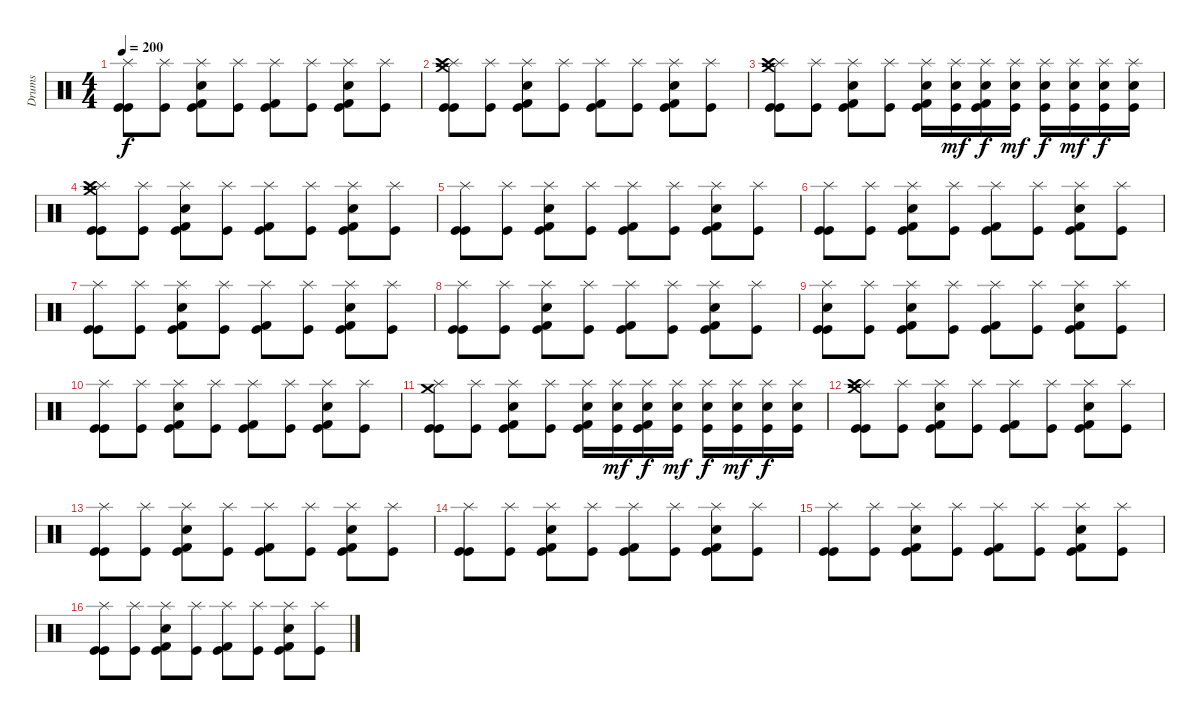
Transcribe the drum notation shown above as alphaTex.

\track ("Drums" "Drums") {instrument percussion}
\staff {score}
\articulation defaults
\ts (4 4)
\tempo 200
\clef neutral
\ks c
("Splash (hit)" "Kick (hit)" "Kick (hit)").8{dy f} ("Splash (hit)" "Kick (hit)").8 ("Splash (hit)" "Snare (hit) 2" "Kick (hit) 2" "Kick (hit)").8 ("Splash (hit)" "Kick (hit)").8 ("Splash (hit)" "Kick (hit) 2" "Kick (hit)").8 ("Splash (hit)" "Kick (hit)").8 ("Splash (hit)" "Snare (hit) 2" "Kick (hit) 2" "Kick (hit)").8 ("Splash (hit)" "Kick (hit)").8 |
("Splash (hit)" "Crash high (hit)" "Crash medium (hit)" "Kick (hit)" "Kick (hit)").8 ("Splash (hit)" "Kick (hit)").8 ("Splash (hit)" "Snare (hit) 2" "Kick (hit) 2" "Kick (hit)").8 ("Splash (hit)" "Kick (hit)").8 ("Splash (hit)" "Kick (hit) 2" "Kick (hit)").8 ("Splash (hit)" "Kick (hit)").8 ("Splash (hit)" "Snare (hit) 2" "Kick (hit) 2" "Kick (hit)").8 ("Splash (hit)" "Kick (hit)").8 |
("Splash (hit)" "Crash high (hit)" "Crash medium (hit)" "Kick (hit)" "Kick (hit)").8 ("Splash (hit)" "Kick (hit)").8 ("Splash (hit)" "Snare (hit) 2" "Kick (hit) 2" "Kick (hit)").8 ("Splash (hit)" "Kick (hit)").8 ("Splash (hit)" "Snare (hit) 2" "Kick (hit) 2" "Kick (hit)").16 ("Splash (hit)" "Snare (hit) 2" "Kick (hit)").16{dy mf} ("Splash (hit)" "Snare (hit) 2" "Kick (hit) 2" "Kick (hit)").16{dy f} ("Splash (hit)" "Snare (hit) 2" "Kick (hit)").16{dy mf} ("Splash (hit)" "Snare (hit) 2" "Kick (hit)").16{dy f} ("Splash (hit)" "Snare (hit) 2" "Kick (hit)").16{dy mf} ("Splash (hit)" "Snare (hit) 2" "Kick (hit)").16{dy f} ("Splash (hit)" "Snare (hit) 2" "Kick (hit)").16 |
("Splash (hit)" "Crash high (hit)" "Crash medium (hit)" "Kick (hit)" "Kick (hit)").8 ("Splash (hit)" "Kick (hit)").8 ("Splash (hit)" "Snare (hit) 2" "Kick (hit) 2" "Kick (hit)").8 ("Splash (hit)" "Kick (hit)").8 ("Splash (hit)" "Kick (hit) 2" "Kick (hit)").8 ("Splash (hit)" "Kick (hit)").8 ("Splash (hit)" "Snare (hit) 2" "Kick (hit) 2" "Kick (hit)").8 ("Splash (hit)" "Kick (hit)").8 |
("Splash (hit)" "Kick (hit)" "Kick (hit)").8 ("Splash (hit)" "Kick (hit)").8 ("Splash (hit)" "Snare (hit) 2" "Kick (hit) 2" "Kick (hit)").8 ("Splash (hit)" "Kick (hit)").8 ("Splash (hit)" "Kick (hit) 2" "Kick (hit)").8 ("Splash (hit)" "Kick (hit)").8 ("Splash (hit)" "Snare (hit) 2" "Kick (hit) 2" "Kick (hit)").8 ("Splash (hit)" "Kick (hit)").8 |
("Splash (hit)" "Kick (hit)" "Kick (hit)").8 ("Splash (hit)" "Kick (hit)").8 ("Splash (hit)" "Snare (hit) 2" "Kick (hit) 2" "Kick (hit)").8 ("Splash (hit)" "Kick (hit)").8 ("Splash (hit)" "Kick (hit) 2" "Kick (hit)").8 ("Splash (hit)" "Kick (hit)").8 ("Splash (hit)" "Snare (hit) 2" "Kick (hit) 2" "Kick (hit)").8 ("Splash (hit)" "Kick (hit)").8 |
("Splash (hit)" "Kick (hit)" "Kick (hit)").8 ("Splash (hit)" "Kick (hit)").8 ("Splash (hit)" "Snare (hit) 2" "Kick (hit) 2" "Kick (hit)").8 ("Splash (hit)" "Kick (hit)").8 ("Splash (hit)" "Kick (hit) 2" "Kick (hit)").8 ("Splash (hit)" "Kick (hit)").8 ("Splash (hit)" "Snare (hit) 2" "Kick (hit) 2" "Kick (hit)").8 ("Splash (hit)" "Kick (hit)").8 |
("Splash (hit)" "Kick (hit)" "Kick (hit)").8 ("Splash (hit)" "Kick (hit)").8 ("Splash (hit)" "Snare (hit) 2" "Kick (hit) 2" "Kick (hit)").8 ("Splash (hit)" "Kick (hit)").8 ("Splash (hit)" "Kick (hit) 2" "Kick (hit)").8 ("Splash (hit)" "Kick (hit)").8 ("Splash (hit)" "Snare (hit) 2" "Kick (hit) 2" "Kick (hit)").8 ("Splash (hit)" "Kick (hit)").8 |
("Splash (hit)" "Snare (hit) 2" "Kick (hit)" "Kick (hit)").8 ("Splash (hit)" "Kick (hit)").8 ("Splash (hit)" "Snare (hit) 2" "Kick (hit) 2" "Kick (hit)").8 ("Splash (hit)" "Kick (hit)").8 ("Splash (hit)" "Kick (hit) 2" "Kick (hit)").8 ("Splash (hit)" "Kick (hit)").8 ("Splash (hit)" "Snare (hit) 2" "Kick (hit) 2" "Kick (hit)").8 ("Splash (hit)" "Kick (hit)").8 |
("Splash (hit)" "Kick (hit)" "Kick (hit)").8 ("Splash (hit)" "Kick (hit)").8 ("Splash (hit)" "Snare (hit) 2" "Kick (hit) 2" "Kick (hit)").8 ("Splash (hit)" "Kick (hit)").8 ("Splash (hit)" "Kick (hit) 2" "Kick (hit)").8 ("Splash (hit)" "Kick (hit)").8 ("Splash (hit)" "Snare (hit) 2" "Kick (hit) 2" "Kick (hit)").8 ("Splash (hit)" "Kick (hit)").8 |
("Splash (hit)" "Crash medium (hit)" "Kick (hit)" "Kick (hit)").8 ("Splash (hit)" "Kick (hit)").8 ("Splash (hit)" "Snare (hit) 2" "Kick (hit) 2" "Kick (hit)").8 ("Splash (hit)" "Kick (hit)").8 ("Splash (hit)" "Snare (hit) 2" "Kick (hit) 2" "Kick (hit)").16 ("Splash (hit)" "Snare (hit) 2" "Kick (hit)").16{dy mf} ("Splash (hit)" "Snare (hit) 2" "Kick (hit) 2" "Kick (hit)").16{dy f} ("Splash (hit)" "Snare (hit) 2" "Kick (hit)").16{dy mf} ("Splash (hit)" "Snare (hit) 2" "Kick (hit)").16{dy f} ("Splash (hit)" "Snare (hit) 2" "Kick (hit)").16{dy mf} ("Splash (hit)" "Snare (hit) 2" "Kick (hit)").16{dy f} ("Splash (hit)" "Snare (hit) 2" "Kick (hit)").16 |
("Splash (hit)" "Crash high (hit)" "Crash medium (hit)" "Kick (hit)" "Kick (hit)").8 ("Splash (hit)" "Kick (hit)").8 ("Splash (hit)" "Snare (hit) 2" "Kick (hit) 2" "Kick (hit)").8 ("Splash (hit)" "Kick (hit)").8 ("Splash (hit)" "Kick (hit) 2" "Kick (hit)").8 ("Splash (hit)" "Kick (hit)").8 ("Splash (hit)" "Snare (hit) 2" "Kick (hit) 2" "Kick (hit)").8 ("Splash (hit)" "Kick (hit)").8 |
("Splash (hit)" "Kick (hit)" "Kick (hit)").8 ("Splash (hit)" "Kick (hit)").8 ("Splash (hit)" "Snare (hit) 2" "Kick (hit) 2" "Kick (hit)").8 ("Splash (hit)" "Kick (hit)").8 ("Splash (hit)" "Kick (hit) 2" "Kick (hit)").8 ("Splash (hit)" "Kick (hit)").8 ("Splash (hit)" "Snare (hit) 2" "Kick (hit) 2" "Kick (hit)").8 ("Splash (hit)" "Kick (hit)").8 |
("Splash (hit)" "Kick (hit)" "Kick (hit)").8 ("Splash (hit)" "Kick (hit)").8 ("Splash (hit)" "Snare (hit) 2" "Kick (hit) 2" "Kick (hit)").8 ("Splash (hit)" "Kick (hit)").8 ("Splash (hit)" "Kick (hit) 2" "Kick (hit)").8 ("Splash (hit)" "Kick (hit)").8 ("Splash (hit)" "Snare (hit) 2" "Kick (hit) 2" "Kick (hit)").8 ("Splash (hit)" "Kick (hit)").8 |
("Splash (hit)" "Kick (hit)" "Kick (hit)").8 ("Splash (hit)" "Kick (hit)").8 ("Splash (hit)" "Snare (hit) 2" "Kick (hit) 2" "Kick (hit)").8 ("Splash (hit)" "Kick (hit)").8 ("Splash (hit)" "Kick (hit) 2" "Kick (hit)").8 ("Splash (hit)" "Kick (hit)").8 ("Splash (hit)" "Snare (hit) 2" "Kick (hit) 2" "Kick (hit)").8 ("Splash (hit)" "Kick (hit)").8 |
("Splash (hit)" "Kick (hit)" "Kick (hit)").8 ("Splash (hit)" "Kick (hit)").8 ("Splash (hit)" "Snare (hit) 2" "Kick (hit) 2" "Kick (hit)").8 ("Splash (hit)" "Kick (hit)").8 ("Splash (hit)" "Kick (hit) 2" "Kick (hit)").8 ("Splash (hit)" "Kick (hit)").8 ("Splash (hit)" "Snare (hit) 2" "Kick (hit) 2" "Kick (hit)").8 ("Splash (hit)" "Kick (hit)").8
